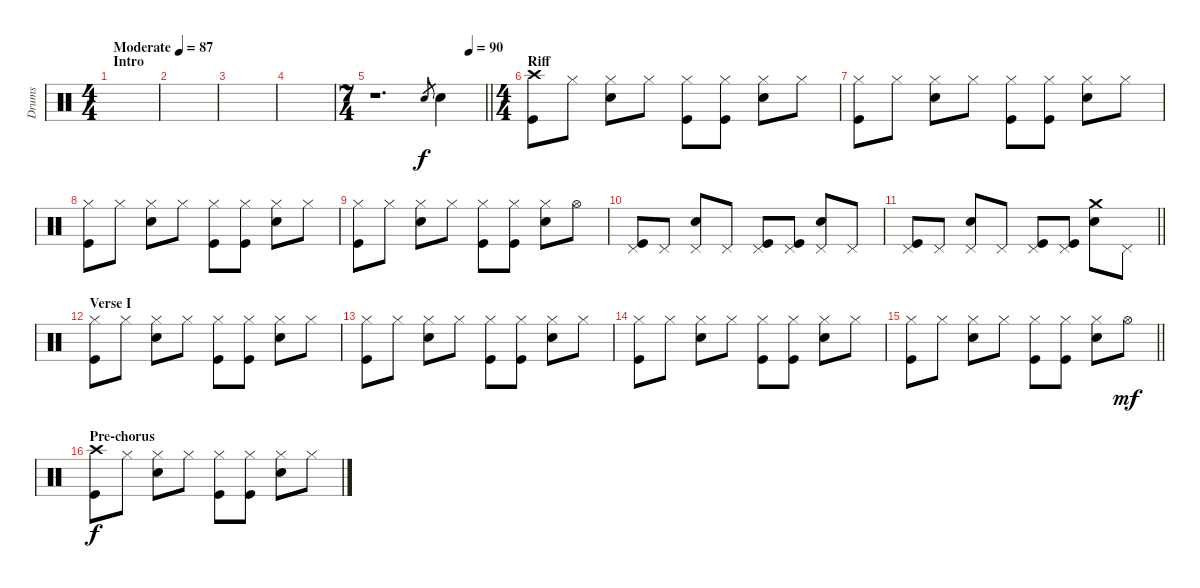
\track ("Drums" "Drums") {instrument percussion}
\staff {score}
\articulation defaults
\ts (4 4)
\section ("" "Intro")
\tempo (87 "Moderate")
\clef neutral
\ks c
|
|
|
|
\ts (7 4)
\tempo (90 0.8571428571428571)
\barLineRight lightlight
r.1{d} "Snare (hit) 2".8{gr} "Snare (hit) 2".4 |
\ts (4 4)
\section ("" "Riff")
("Kick (hit)" "Crash high (hit)").8 "Hi-Hat (closed)".8 ("Snare (hit) 2" "Hi-Hat (closed)").8 "Hi-Hat (closed)".8 ("Kick (hit)" "Hi-Hat (closed)").8 ("Kick (hit)" "Hi-Hat (closed)").8 ("Snare (hit) 2" "Hi-Hat (closed)").8 "Hi-Hat (closed)".8 |
("Kick (hit)" "Hi-Hat (closed)").8 "Hi-Hat (closed)".8 ("Snare (hit) 2" "Hi-Hat (closed)").8 "Hi-Hat (closed)".8 ("Kick (hit)" "Hi-Hat (closed)").8 ("Kick (hit)" "Hi-Hat (closed)").8 ("Snare (hit) 2" "Hi-Hat (closed)").8 "Hi-Hat (closed)".8 |
("Kick (hit)" "Hi-Hat (closed)").8 "Hi-Hat (closed)".8 ("Snare (hit) 2" "Hi-Hat (closed)").8 "Hi-Hat (closed)".8 ("Kick (hit)" "Hi-Hat (closed)").8 ("Kick (hit)" "Hi-Hat (closed)").8 ("Snare (hit) 2" "Hi-Hat (closed)").8 "Hi-Hat (closed)".8 |
("Kick (hit)" "Hi-Hat (closed)").8 "Hi-Hat (closed)".8 ("Snare (hit) 2" "Hi-Hat (closed)").8 "Hi-Hat (closed)".8 ("Kick (hit)" "Hi-Hat (closed)").8 ("Kick (hit)" "Hi-Hat (closed)").8 ("Snare (hit) 2" "Hi-Hat (closed)").8 "Hi-Hat (open)".8 |
("Pedal Hi-Hat (hit)" "Kick (hit)").8 "Pedal Hi-Hat (hit)".8 ("Snare (hit) 2" "Pedal Hi-Hat (hit)").8 "Pedal Hi-Hat (hit)".8 ("Kick (hit)" "Pedal Hi-Hat (hit)").8 ("Kick (hit)" "Pedal Hi-Hat (hit)").8 ("Snare (hit) 2" "Pedal Hi-Hat (hit)").8 "Pedal Hi-Hat (hit)".8 |
\barLineRight lightlight
("Pedal Hi-Hat (hit)" "Kick (hit)").8 "Pedal Hi-Hat (hit)".8 ("Snare (hit) 2" "Pedal Hi-Hat (hit)").8 "Pedal Hi-Hat (hit)".8 ("Kick (hit)" "Pedal Hi-Hat (hit)").8 ("Kick (hit)" "Pedal Hi-Hat (hit)").8 ("Snare (hit) 2" "Crash medium (hit)").8 "Pedal Hi-Hat (hit)".8 |
\section ("" "Verse I")
("Kick (hit)" "Hi-Hat (closed)").8 "Hi-Hat (closed)".8 ("Snare (hit) 2" "Hi-Hat (closed)").8 "Hi-Hat (closed)".8 ("Kick (hit)" "Hi-Hat (closed)").8 ("Kick (hit)" "Hi-Hat (closed)").8 ("Snare (hit) 2" "Hi-Hat (closed)").8 "Hi-Hat (closed)".8 |
("Kick (hit)" "Hi-Hat (closed)").8 "Hi-Hat (closed)".8 ("Snare (hit) 2" "Hi-Hat (closed)").8 "Hi-Hat (closed)".8 ("Kick (hit)" "Hi-Hat (closed)").8 ("Kick (hit)" "Hi-Hat (closed)").8 ("Snare (hit) 2" "Hi-Hat (closed)").8 "Hi-Hat (closed)".8 |
("Kick (hit)" "Hi-Hat (closed)").8 "Hi-Hat (closed)".8 ("Snare (hit) 2" "Hi-Hat (closed)").8 "Hi-Hat (closed)".8 ("Kick (hit)" "Hi-Hat (closed)").8 ("Kick (hit)" "Hi-Hat (closed)").8 ("Snare (hit) 2" "Hi-Hat (closed)").8 "Hi-Hat (closed)".8 |
\barLineRight lightlight
("Kick (hit)" "Hi-Hat (closed)").8 "Hi-Hat (closed)".8 ("Snare (hit) 2" "Hi-Hat (closed)").8 "Hi-Hat (closed)".8 ("Kick (hit)" "Hi-Hat (closed)").8 ("Kick (hit)" "Hi-Hat (closed)").8 ("Snare (hit) 2" "Hi-Hat (closed)").8 "Hi-Hat (open)".8{dy mf} |
\section ("" "Pre-chorus")
("Kick (hit)" "Crash high (hit)").8{dy f} "Hi-Hat (closed)".8 ("Snare (hit) 2" "Hi-Hat (closed)").8 "Hi-Hat (closed)".8 ("Kick (hit)" "Hi-Hat (closed)").8 ("Kick (hit)" "Hi-Hat (closed)").8 ("Snare (hit) 2" "Hi-Hat (closed)").8 "Hi-Hat (closed)".8
